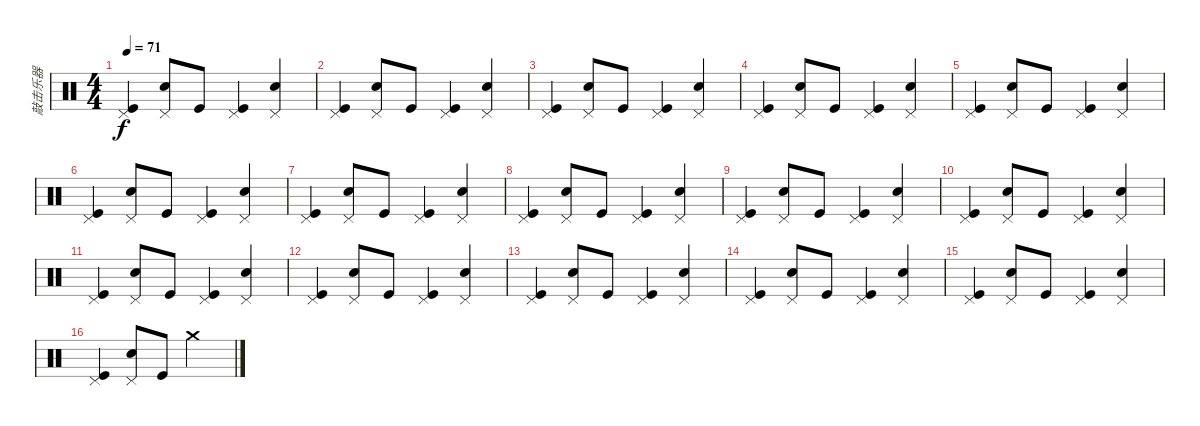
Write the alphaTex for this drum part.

\track ("敲击乐器" "敲击乐器") {instrument percussion}
\staff {score}
\articulation defaults
\ts (4 4)
\tempo 71
\clef neutral
\ks c
("Pedal Hi-Hat (hit)" "Kick (hit)").4{dy f} ("Pedal Hi-Hat (hit)" "Snare (hit) 2").8 "Kick (hit)".8 ("Pedal Hi-Hat (hit)" "Kick (hit)").4 ("Pedal Hi-Hat (hit)" "Snare (hit) 2").4 |
("Pedal Hi-Hat (hit)" "Kick (hit)").4 ("Pedal Hi-Hat (hit)" "Snare (hit) 2").8 "Kick (hit)".8 ("Pedal Hi-Hat (hit)" "Kick (hit)").4 ("Pedal Hi-Hat (hit)" "Snare (hit) 2").4 |
("Pedal Hi-Hat (hit)" "Kick (hit)").4 ("Pedal Hi-Hat (hit)" "Snare (hit) 2").8 "Kick (hit)".8 ("Pedal Hi-Hat (hit)" "Kick (hit)").4 ("Pedal Hi-Hat (hit)" "Snare (hit) 2").4 |
("Pedal Hi-Hat (hit)" "Kick (hit)").4 ("Pedal Hi-Hat (hit)" "Snare (hit) 2").8 "Kick (hit)".8 ("Pedal Hi-Hat (hit)" "Kick (hit)").4 ("Pedal Hi-Hat (hit)" "Snare (hit) 2").4 |
("Pedal Hi-Hat (hit)" "Kick (hit)").4 ("Pedal Hi-Hat (hit)" "Snare (hit) 2").8 "Kick (hit)".8 ("Pedal Hi-Hat (hit)" "Kick (hit)").4 ("Pedal Hi-Hat (hit)" "Snare (hit) 2").4 |
("Pedal Hi-Hat (hit)" "Kick (hit)").4 ("Pedal Hi-Hat (hit)" "Snare (hit) 2").8 "Kick (hit)".8 ("Pedal Hi-Hat (hit)" "Kick (hit)").4 ("Pedal Hi-Hat (hit)" "Snare (hit) 2").4 |
("Pedal Hi-Hat (hit)" "Kick (hit)").4 ("Pedal Hi-Hat (hit)" "Snare (hit) 2").8 "Kick (hit)".8 ("Pedal Hi-Hat (hit)" "Kick (hit)").4 ("Pedal Hi-Hat (hit)" "Snare (hit) 2").4 |
("Pedal Hi-Hat (hit)" "Kick (hit)").4 ("Pedal Hi-Hat (hit)" "Snare (hit) 2").8 "Kick (hit)".8 ("Pedal Hi-Hat (hit)" "Kick (hit)").4 ("Pedal Hi-Hat (hit)" "Snare (hit) 2").4 |
("Pedal Hi-Hat (hit)" "Kick (hit)").4 ("Pedal Hi-Hat (hit)" "Snare (hit) 2").8 "Kick (hit)".8 ("Pedal Hi-Hat (hit)" "Kick (hit)").4 ("Pedal Hi-Hat (hit)" "Snare (hit) 2").4 |
("Pedal Hi-Hat (hit)" "Kick (hit)").4 ("Pedal Hi-Hat (hit)" "Snare (hit) 2").8 "Kick (hit)".8 ("Pedal Hi-Hat (hit)" "Kick (hit)").4 ("Pedal Hi-Hat (hit)" "Snare (hit) 2").4 |
("Pedal Hi-Hat (hit)" "Kick (hit)").4 ("Pedal Hi-Hat (hit)" "Snare (hit) 2").8 "Kick (hit)".8 ("Pedal Hi-Hat (hit)" "Kick (hit)").4 ("Pedal Hi-Hat (hit)" "Snare (hit) 2").4 |
("Pedal Hi-Hat (hit)" "Kick (hit)").4 ("Pedal Hi-Hat (hit)" "Snare (hit) 2").8 "Kick (hit)".8 ("Pedal Hi-Hat (hit)" "Kick (hit)").4 ("Pedal Hi-Hat (hit)" "Snare (hit) 2").4 |
("Pedal Hi-Hat (hit)" "Kick (hit)").4 ("Pedal Hi-Hat (hit)" "Snare (hit) 2").8 "Kick (hit)".8 ("Pedal Hi-Hat (hit)" "Kick (hit)").4 ("Pedal Hi-Hat (hit)" "Snare (hit) 2").4 |
("Pedal Hi-Hat (hit)" "Kick (hit)").4 ("Pedal Hi-Hat (hit)" "Snare (hit) 2").8 "Kick (hit)".8 ("Pedal Hi-Hat (hit)" "Kick (hit)").4 ("Pedal Hi-Hat (hit)" "Snare (hit) 2").4 |
("Pedal Hi-Hat (hit)" "Kick (hit)").4 ("Pedal Hi-Hat (hit)" "Snare (hit) 2").8 "Kick (hit)".8 ("Pedal Hi-Hat (hit)" "Kick (hit)").4 ("Pedal Hi-Hat (hit)" "Snare (hit) 2").4 |
("Pedal Hi-Hat (hit)" "Kick (hit)").4 ("Pedal Hi-Hat (hit)" "Snare (hit) 2").8 "Kick (hit)".8 "Crash medium (hit)".2
